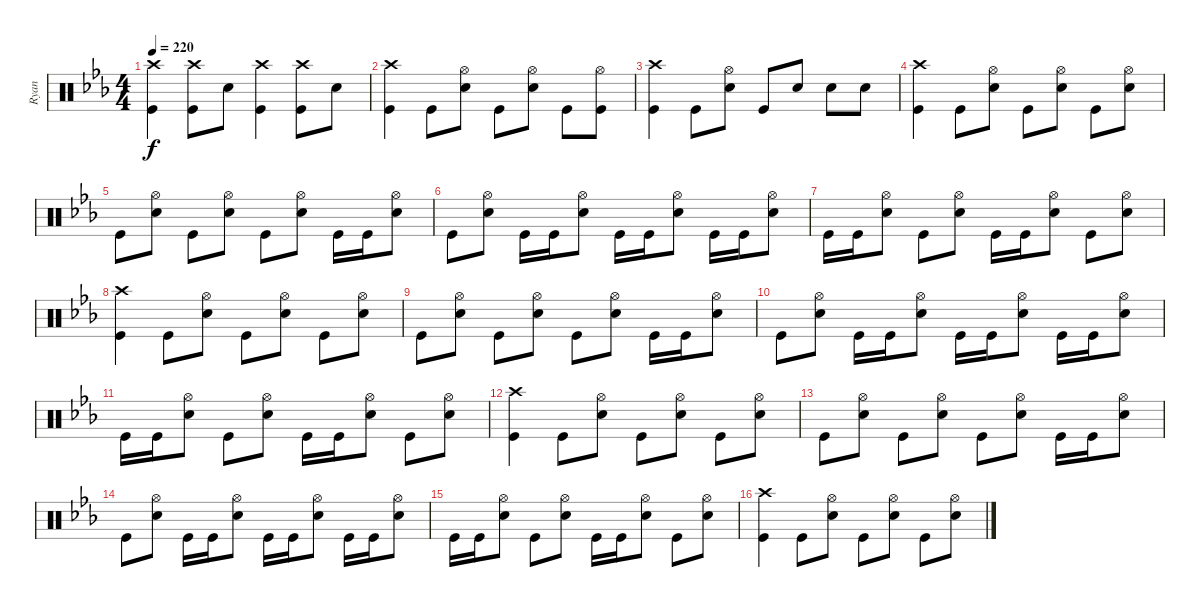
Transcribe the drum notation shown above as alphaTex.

\track ("Ryan" "Ryan") {instrument percussion}
\staff {score}
\articulation defaults
\ts (4 4)
\tempo 220
\clef neutral
\ks cminor
("Kick (hit)" "Crash high (hit)").4{dy f} ("Crash high (hit)" "Kick (hit)").8 "Snare (hit) 2".8 ("Kick (hit)" "Crash high (hit)").4 ("Crash high (hit)" "Kick (hit)").8 "Snare (hit) 2".8 |
("Kick (hit)" "Crash high (hit)").4 "Kick (hit)".8 ("Snare (hit) 2" "Hi-Hat (open)").8 "Kick (hit)".8 ("Snare (hit) 2" "Hi-Hat (open)").8 "Kick (hit)".8 ("Kick (hit)" "Hi-Hat (open)").8 |
("Crash high (hit)" "Kick (hit)").4 "Kick (hit)".8 ("Snare (hit) 2" "Hi-Hat (open)").8 "Kick (hit)".8 "Snare (hit) 2".8 "Snare (hit) 2".8 "Snare (hit) 2".8 |
("Kick (hit)" "Crash high (hit)").4 "Kick (hit)".8 ("Snare (hit) 2" "Hi-Hat (open)").8 "Kick (hit)".8 ("Snare (hit) 2" "Hi-Hat (open)").8 "Kick (hit)".8 ("Snare (hit) 2" "Hi-Hat (open)").8 |
"Kick (hit)".8 ("Snare (hit) 2" "Hi-Hat (open)").8 "Kick (hit)".8 ("Snare (hit) 2" "Hi-Hat (open)").8 "Kick (hit)".8 ("Snare (hit) 2" "Hi-Hat (open)").8 "Kick (hit)".16 "Kick (hit)".16 ("Snare (hit) 2" "Hi-Hat (open)").8 |
"Kick (hit)".8 ("Snare (hit) 2" "Hi-Hat (open)").8 "Kick (hit)".16 "Kick (hit)".16 ("Snare (hit) 2" "Hi-Hat (open)").8 "Kick (hit)".16 "Kick (hit)".16 ("Snare (hit) 2" "Hi-Hat (open)").8 "Kick (hit)".16 "Kick (hit)".16 ("Snare (hit) 2" "Hi-Hat (open)").8 |
"Kick (hit)".16 "Kick (hit)".16 ("Snare (hit) 2" "Hi-Hat (open)").8 "Kick (hit)".8 ("Snare (hit) 2" "Hi-Hat (open)").8 "Kick (hit)".16 "Kick (hit)".16 ("Snare (hit) 2" "Hi-Hat (open)").8 "Kick (hit)".8 ("Snare (hit) 2" "Hi-Hat (open)").8 |
("Kick (hit)" "Crash high (hit)").4 "Kick (hit)".8 ("Snare (hit) 2" "Hi-Hat (open)").8 "Kick (hit)".8 ("Snare (hit) 2" "Hi-Hat (open)").8 "Kick (hit)".8 ("Snare (hit) 2" "Hi-Hat (open)").8 |
"Kick (hit)".8 ("Snare (hit) 2" "Hi-Hat (open)").8 "Kick (hit)".8 ("Snare (hit) 2" "Hi-Hat (open)").8 "Kick (hit)".8 ("Snare (hit) 2" "Hi-Hat (open)").8 "Kick (hit)".16 "Kick (hit)".16 ("Snare (hit) 2" "Hi-Hat (open)").8 |
"Kick (hit)".8 ("Snare (hit) 2" "Hi-Hat (open)").8 "Kick (hit)".16 "Kick (hit)".16 ("Snare (hit) 2" "Hi-Hat (open)").8 "Kick (hit)".16 "Kick (hit)".16 ("Snare (hit) 2" "Hi-Hat (open)").8 "Kick (hit)".16 "Kick (hit)".16 ("Snare (hit) 2" "Hi-Hat (open)").8 |
"Kick (hit)".16 "Kick (hit)".16 ("Snare (hit) 2" "Hi-Hat (open)").8 "Kick (hit)".8 ("Snare (hit) 2" "Hi-Hat (open)").8 "Kick (hit)".16 "Kick (hit)".16 ("Snare (hit) 2" "Hi-Hat (open)").8 "Kick (hit)".8 ("Snare (hit) 2" "Hi-Hat (open)").8 |
("Kick (hit)" "Crash high (hit)").4 "Kick (hit)".8 ("Snare (hit) 2" "Hi-Hat (open)").8 "Kick (hit)".8 ("Snare (hit) 2" "Hi-Hat (open)").8 "Kick (hit)".8 ("Snare (hit) 2" "Hi-Hat (open)").8 |
"Kick (hit)".8 ("Snare (hit) 2" "Hi-Hat (open)").8 "Kick (hit)".8 ("Snare (hit) 2" "Hi-Hat (open)").8 "Kick (hit)".8 ("Snare (hit) 2" "Hi-Hat (open)").8 "Kick (hit)".16 "Kick (hit)".16 ("Snare (hit) 2" "Hi-Hat (open)").8 |
"Kick (hit)".8 ("Snare (hit) 2" "Hi-Hat (open)").8 "Kick (hit)".16 "Kick (hit)".16 ("Snare (hit) 2" "Hi-Hat (open)").8 "Kick (hit)".16 "Kick (hit)".16 ("Snare (hit) 2" "Hi-Hat (open)").8 "Kick (hit)".16 "Kick (hit)".16 ("Snare (hit) 2" "Hi-Hat (open)").8 |
"Kick (hit)".16 "Kick (hit)".16 ("Snare (hit) 2" "Hi-Hat (open)").8 "Kick (hit)".8 ("Snare (hit) 2" "Hi-Hat (open)").8 "Kick (hit)".16 "Kick (hit)".16 ("Snare (hit) 2" "Hi-Hat (open)").8 "Kick (hit)".8 ("Snare (hit) 2" "Hi-Hat (open)").8 |
("Kick (hit)" "Crash high (hit)").4 "Kick (hit)".8 ("Snare (hit) 2" "Hi-Hat (open)").8 "Kick (hit)".8 ("Snare (hit) 2" "Hi-Hat (open)").8 "Kick (hit)".8 ("Snare (hit) 2" "Hi-Hat (open)").8
